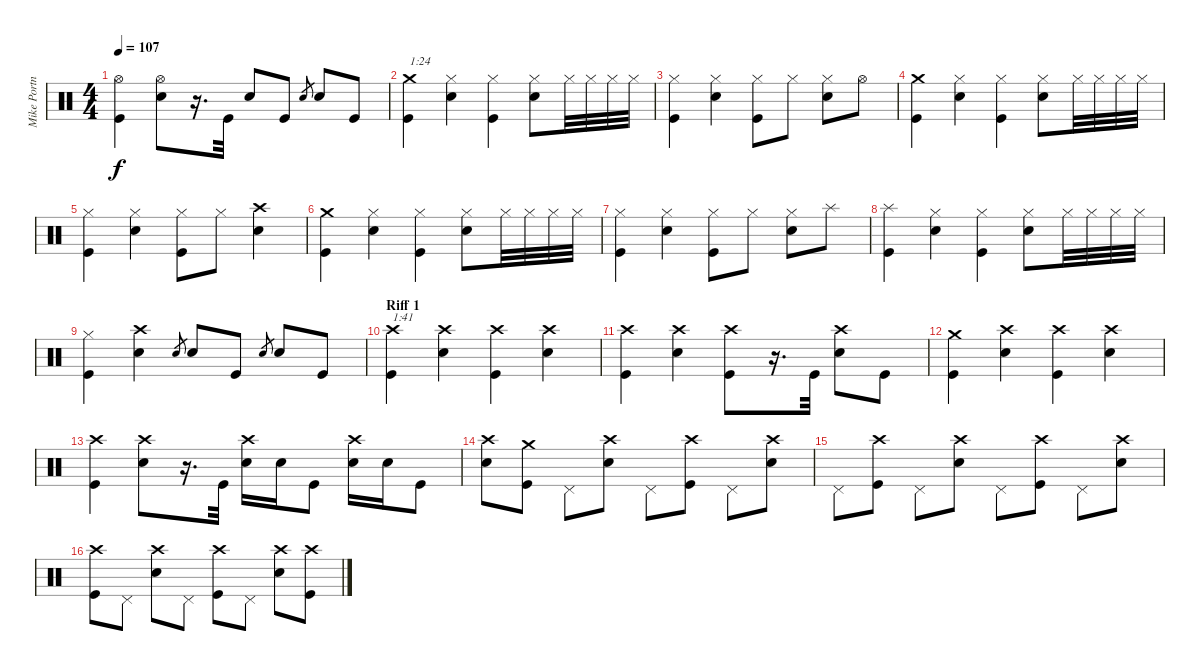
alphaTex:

\track ("Mike Portnoy" "Mike Portn") {instrument percussion}
\staff {score}
\articulation defaults
\ts (4 4)
\tempo 107
\clef neutral
\ks c
("Hi-Hat (open)" "Kick (hit)").4{dy f} ("Hi-Hat (open)" "Snare (hit) 2").8 r.16{d} "Kick (hit)".32 "Snare (hit) 2".8 "Kick (hit)".8 "Snare (hit) 2".8{gr} "Snare (hit) 2".8 "Kick (hit)".8 |
("Crash medium (hit)" "Kick (hit)").4{txt "1:24"} ("Hi-Hat (closed)" "Snare (hit) 2").4 ("Hi-Hat (closed)" "Kick (hit)").4 ("Hi-Hat (closed)" "Snare (hit) 2").8 "Hi-Hat (closed)".32 "Hi-Hat (closed)".32 "Hi-Hat (closed)".32 "Hi-Hat (closed)".32 |
("Hi-Hat (closed)" "Kick (hit)").4 ("Hi-Hat (closed)" "Snare (hit) 2").4 ("Hi-Hat (closed)" "Kick (hit)").8 "Hi-Hat (closed)".8 ("Hi-Hat (closed)" "Snare (hit) 2").8 "Hi-Hat (open)".8 |
("Crash medium (hit)" "Kick (hit)").4 ("Hi-Hat (closed)" "Snare (hit) 2").4 ("Hi-Hat (closed)" "Kick (hit)").4 ("Hi-Hat (closed)" "Snare (hit) 2").8 "Hi-Hat (closed)".32 "Hi-Hat (closed)".32 "Hi-Hat (closed)".32 "Hi-Hat (closed)".32 |
("Hi-Hat (closed)" "Kick (hit)").4 ("Hi-Hat (closed)" "Snare (hit) 2").4 ("Hi-Hat (closed)" "Kick (hit)").8 "Hi-Hat (closed)".8 ("Crash high (hit)" "Snare (hit) 2").4 |
("Crash medium (hit)" "Kick (hit)").4 ("Hi-Hat (closed)" "Snare (hit) 2").4 ("Hi-Hat (closed)" "Kick (hit)").4 ("Hi-Hat (closed)" "Snare (hit) 2").8 "Hi-Hat (closed)".32 "Hi-Hat (closed)".32 "Hi-Hat (closed)".32 "Hi-Hat (closed)".32 |
("Hi-Hat (closed)" "Kick (hit)").4 ("Hi-Hat (closed)" "Snare (hit) 2").4 ("Hi-Hat (closed)" "Kick (hit)").8 "Hi-Hat (closed)".8 ("Hi-Hat (closed)" "Snare (hit) 2").8 "Splash (hit)".8 |
("Splash (hit)" "Kick (hit)").4 ("Hi-Hat (closed)" "Snare (hit) 2").4 ("Hi-Hat (closed)" "Kick (hit)").4 ("Hi-Hat (closed)" "Snare (hit) 2").8 "Hi-Hat (closed)".32 "Hi-Hat (closed)".32 "Hi-Hat (closed)".32 "Hi-Hat (closed)".32 |
("Hi-Hat (closed)" "Kick (hit)").4 ("Crash high (hit)" "Snare (hit) 2").4 "Snare (hit) 2".8{gr} "Snare (hit) 2".8 "Kick (hit)".8 "Snare (hit) 2".8{gr} "Snare (hit) 2".8 "Kick (hit)".8 |
\section ("" "Riff 1")
("Crash high (hit)" "Kick (hit)").4{txt "1:41"} ("Crash high (hit)" "Snare (hit) 2").4 ("Crash high (hit)" "Kick (hit)").4 ("Crash high (hit)" "Snare (hit) 2").4 |
("Crash high (hit)" "Kick (hit)").4 ("Crash high (hit)" "Snare (hit) 2").4 ("Crash high (hit)" "Kick (hit)").8 r.16{d} "Kick (hit)".32 ("Crash high (hit)" "Snare (hit) 2").8 "Kick (hit)".8 |
("Crash medium (hit)" "Kick (hit)").4 ("Crash high (hit)" "Snare (hit) 2").4 ("Crash high (hit)" "Kick (hit)").4 ("Crash high (hit)" "Snare (hit) 2").4 |
("Crash high (hit)" "Kick (hit)").4 ("Crash high (hit)" "Snare (hit) 2").8 r.16{d} "Kick (hit)".32 ("Crash high (hit)" "Snare (hit) 2").16 "Snare (hit) 2".16 "Kick (hit)".8 ("Crash high (hit)" "Snare (hit) 2").16 "Snare (hit) 2".16 "Kick (hit)".8 |
("Crash high (hit)" "Snare (hit) 2").8 ("Crash medium (hit)" "Kick (hit)").8 "Pedal Hi-Hat (hit)".8 ("Crash high (hit)" "Snare (hit) 2").8 "Pedal Hi-Hat (hit)".8 ("Crash high (hit)" "Kick (hit)").8 "Pedal Hi-Hat (hit)".8 ("Crash high (hit)" "Snare (hit) 2").8 |
"Pedal Hi-Hat (hit)".8 ("Crash high (hit)" "Kick (hit)").8 "Pedal Hi-Hat (hit)".8 ("Crash high (hit)" "Snare (hit) 2").8 "Pedal Hi-Hat (hit)".8 ("Crash high (hit)" "Kick (hit)").8 "Pedal Hi-Hat (hit)".8 ("Crash high (hit)" "Snare (hit) 2").8 |
("Crash high (hit)" "Kick (hit)").8 "Pedal Hi-Hat (hit)".8 ("Crash high (hit)" "Snare (hit) 2").8 "Pedal Hi-Hat (hit)".8 ("Crash high (hit)" "Kick (hit)").8 "Pedal Hi-Hat (hit)".8 ("Crash high (hit)" "Snare (hit) 2").8 ("Crash high (hit)" "Kick (hit)").8
